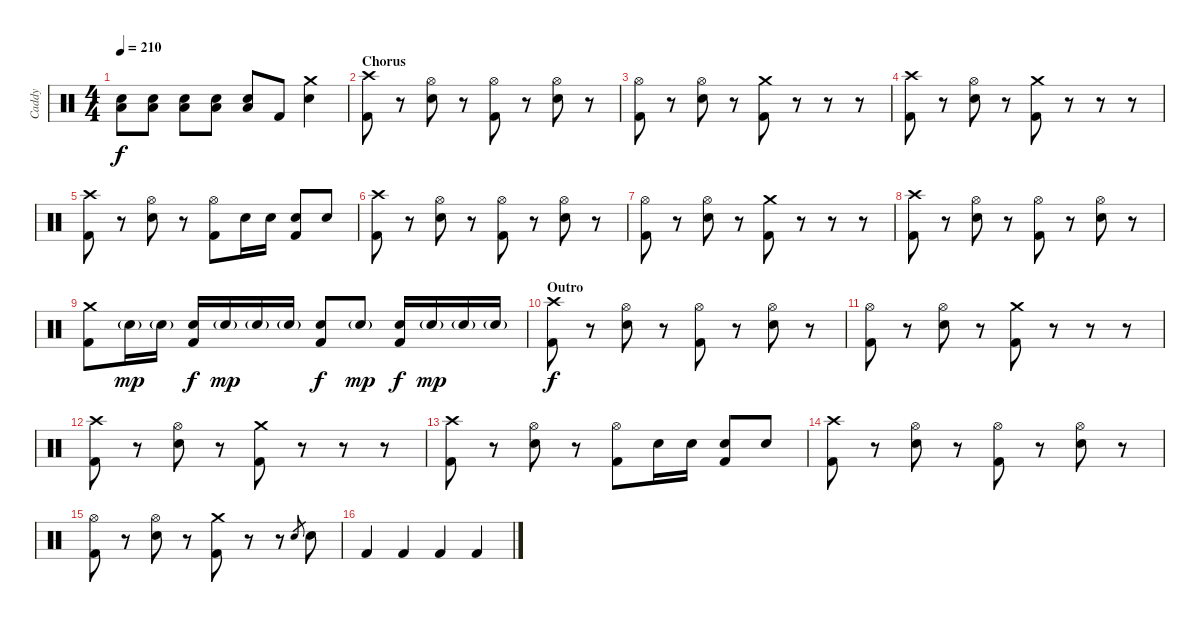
\track ("Caddy" "Caddy") {instrument percussion}
\staff {score}
\articulation defaults
\ts (4 4)
\tempo 210
\clef neutral
\ks c
("Low Tom (hit)" "Electric Snare (hit)").8{dy f} ("Low Tom (hit)" "Electric Snare (hit)").8 ("Low Tom (hit)" "Electric Snare (hit)").8 ("Low Tom (hit)" "Electric Snare (hit)").8 ("Low Tom (hit)" "Electric Snare (hit)").8 "Kick (hit) 2".8 ("Crash medium (hit)" "Electric Snare (hit)").4 |
\section ("" "Chorus")
("Crash high (hit)" "Kick (hit) 2").8 r.8 ("Hi-Hat (open)" "Electric Snare (hit)").8 r.8 ("Hi-Hat (open)" "Kick (hit) 2").8 r.8 ("Hi-Hat (open)" "Electric Snare (hit)").8 r.8 |
("Hi-Hat (open)" "Kick (hit) 2").8 r.8 ("Hi-Hat (open)" "Electric Snare (hit)").8 r.8 ("Crash medium (hit)" "Kick (hit) 2").8 r.8 r.8 r.8 |
("Crash high (hit)" "Kick (hit) 2").8 r.8 ("Hi-Hat (open)" "Electric Snare (hit)").8 r.8 ("Crash medium (hit)" "Kick (hit) 2").8 r.8 r.8 r.8 |
("Crash high (hit)" "Kick (hit) 2").8 r.8 ("Hi-Hat (open)" "Electric Snare (hit)").8 r.8 ("Hi-Hat (open)" "Kick (hit) 2").8 "Electric Snare (hit)".16 "Electric Snare (hit)".16 ("Electric Snare (hit)" "Kick (hit) 2").8 "Electric Snare (hit)".8 |
("Crash high (hit)" "Kick (hit) 2").8 r.8 ("Hi-Hat (open)" "Electric Snare (hit)").8 r.8 ("Hi-Hat (open)" "Kick (hit) 2").8 r.8 ("Hi-Hat (open)" "Electric Snare (hit)").8 r.8 |
("Hi-Hat (open)" "Kick (hit) 2").8 r.8 ("Hi-Hat (open)" "Electric Snare (hit)").8 r.8 ("Crash medium (hit)" "Kick (hit) 2").8 r.8 r.8 r.8 |
("Crash high (hit)" "Kick (hit) 2").8 r.8 ("Hi-Hat (open)" "Electric Snare (hit)").8 r.8 ("Hi-Hat (open)" "Kick (hit) 2").8 r.8 ("Hi-Hat (open)" "Electric Snare (hit)").8 r.8 |
("Crash medium (hit)" "Kick (hit) 2").8 "Electric Snare (hit)"{g}.16{dy mp} "Electric Snare (hit)"{g}.16 ("Electric Snare (hit)" "Kick (hit) 2").16{dy f} "Electric Snare (hit)"{g}.16{dy mp} "Electric Snare (hit)"{g}.16 "Electric Snare (hit)"{g}.16 ("Electric Snare (hit)" "Kick (hit) 2").8{dy f} "Electric Snare (hit)"{g}.8{dy mp} ("Electric Snare (hit)" "Kick (hit) 2").16{dy f} "Electric Snare (hit)"{g}.16{dy mp} "Electric Snare (hit)"{g}.16 "Electric Snare (hit)"{g}.16 |
\section ("" "Outro")
("Crash high (hit)" "Kick (hit) 2").8{dy f} r.8 ("Hi-Hat (open)" "Electric Snare (hit)").8 r.8 ("Hi-Hat (open)" "Kick (hit) 2").8 r.8 ("Hi-Hat (open)" "Electric Snare (hit)").8 r.8 |
("Hi-Hat (open)" "Kick (hit) 2").8 r.8 ("Hi-Hat (open)" "Electric Snare (hit)").8 r.8 ("Crash medium (hit)" "Kick (hit) 2").8 r.8 r.8 r.8 |
("Crash high (hit)" "Kick (hit) 2").8 r.8 ("Hi-Hat (open)" "Electric Snare (hit)").8 r.8 ("Crash medium (hit)" "Kick (hit) 2").8 r.8 r.8 r.8 |
("Crash high (hit)" "Kick (hit) 2").8 r.8 ("Hi-Hat (open)" "Electric Snare (hit)").8 r.8 ("Hi-Hat (open)" "Kick (hit) 2").8 "Electric Snare (hit)".16 "Electric Snare (hit)".16 ("Electric Snare (hit)" "Kick (hit) 2").8 "Electric Snare (hit)".8 |
("Crash high (hit)" "Kick (hit) 2").8 r.8 ("Hi-Hat (open)" "Electric Snare (hit)").8 r.8 ("Hi-Hat (open)" "Kick (hit) 2").8 r.8 ("Hi-Hat (open)" "Electric Snare (hit)").8 r.8 |
("Hi-Hat (open)" "Kick (hit) 2").8 r.8 ("Hi-Hat (open)" "Electric Snare (hit)").8 r.8 ("Crash medium (hit)" "Kick (hit) 2").8 r.8 r.8 "Electric Snare (hit)".8{gr} "Electric Snare (hit)".8 |
"Kick (hit) 2".4 "Kick (hit) 2".4 "Kick (hit) 2".4 "Kick (hit) 2".4
